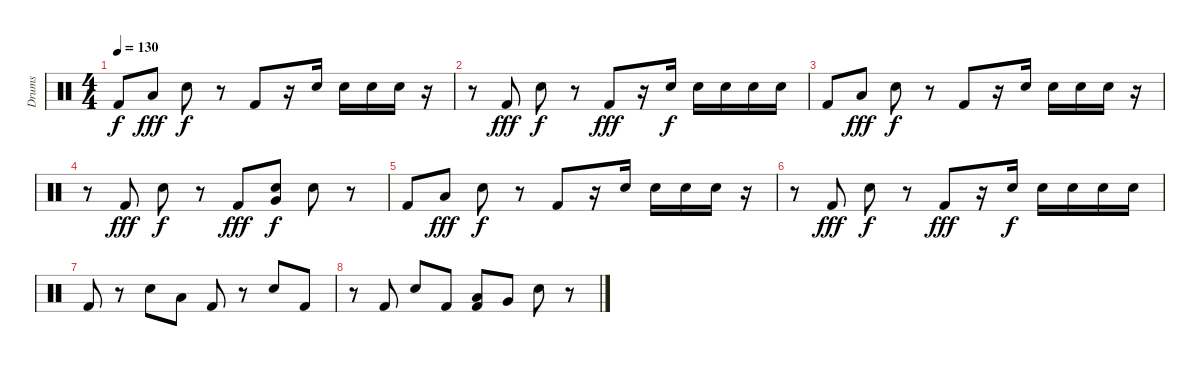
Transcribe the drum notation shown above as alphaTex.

\track ("Drums" "Drums") {instrument percussion}
\staff {score}
\articulation defaults
\ts (4 4)
\tempo 130
\clef neutral
\ks c "Kick (hit) 2".8{dy f} "Low Floor Tom (hit)".8{dy fff} "Electric Snare (hit)".8{dy f}
r.8 "Kick (hit) 2".8 r.16 "Electric Snare (hit)".16 "Electric Snare (hit)".16 "Electric Snare (hit)".16 "Electric Snare (hit)".16 r.16 |
r.8 "Kick (hit) 2".8{dy fff} "Electric Snare (hit)".8{dy f} r.8 "Kick (hit) 2".8{dy fff} r.16 "Electric Snare (hit)".16{dy f} "Electric Snare (hit)".16 "Electric Snare (hit)".16 "Electric Snare (hit)".16 "Electric Snare (hit)".16 |
"Kick (hit) 2".8 "Low Floor Tom (hit)".8{dy fff} "Electric Snare (hit)".8{dy f} r.8 "Kick (hit) 2".8 r.16 "Electric Snare (hit)".16 "Electric Snare (hit)".16 "Electric Snare (hit)".16 "Electric Snare (hit)".16 r.16 |
r.8 "Kick (hit) 2".8{dy fff} "Electric Snare (hit)".8{dy f} r.8 "Kick (hit) 2".8{dy fff} ("Very Low Tom (hit)" "Electric Snare (hit)").8{dy f} "Electric Snare (hit)".8 r.8 |
"Kick (hit) 2".8 "Low Floor Tom (hit)".8{dy fff} "Electric Snare (hit)".8{dy f} r.8 "Kick (hit) 2".8 r.16 "Electric Snare (hit)".16 "Electric Snare (hit)".16 "Electric Snare (hit)".16 "Electric Snare (hit)".16 r.16 |
r.8 "Kick (hit) 2".8{dy fff} "Electric Snare (hit)".8{dy f} r.8 "Kick (hit) 2".8{dy fff} r.16 "Electric Snare (hit)".16{dy f} "Electric Snare (hit)".16 "Electric Snare (hit)".16 "Electric Snare (hit)".16 "Electric Snare (hit)".16 |
"Kick (hit) 2".8 r.8 "Electric Snare (hit)".8 "Low Floor Tom (hit)".8 "Kick (hit) 2".8 r.8 "Electric Snare (hit)".8 "Kick (hit) 2".8 |
r.8 "Kick (hit) 2".8 "Electric Snare (hit)".8 "Kick (hit) 2".8 ("Low Floor Tom (hit)" "Kick (hit) 2").8 "Very Low Tom (hit)".8 "Electric Snare (hit)".8 r.8
